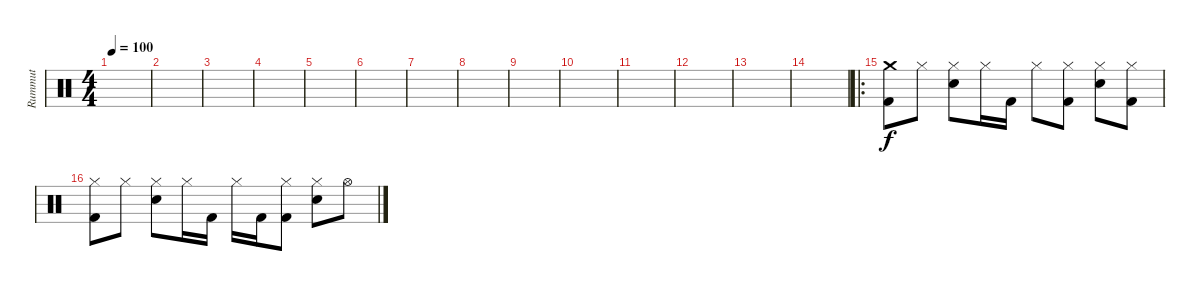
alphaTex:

\track ("Rummut" "Rummut") {instrument percussion}
\staff {score}
\articulation defaults
\ts (4 4)
\tempo 100
\clef neutral
\ks c
|
|
|
|
|
|
|
|
|
|
|
|
|
|
\ro
("Crash medium (hit)" "Kick (hit) 2").8{dy f} "Hi-Hat (closed)".8 ("Hi-Hat (closed)" "Snare (hit) 2").8 "Hi-Hat (closed)".16 "Kick (hit) 2".16 "Hi-Hat (closed)".8 ("Hi-Hat (closed)" "Kick (hit) 2").8 ("Hi-Hat (closed)" "Snare (hit) 2").8 ("Hi-Hat (closed)" "Kick (hit) 2").8 |
("Hi-Hat (closed)" "Kick (hit) 2").8 "Hi-Hat (closed)".8 ("Hi-Hat (closed)" "Snare (hit) 2").8 "Hi-Hat (closed)".16 "Kick (hit) 2".16 "Hi-Hat (closed)".16 "Kick (hit) 2".16 ("Hi-Hat (closed)" "Kick (hit) 2").8 ("Hi-Hat (closed)" "Snare (hit) 2").8 "Hi-Hat (open)".8
